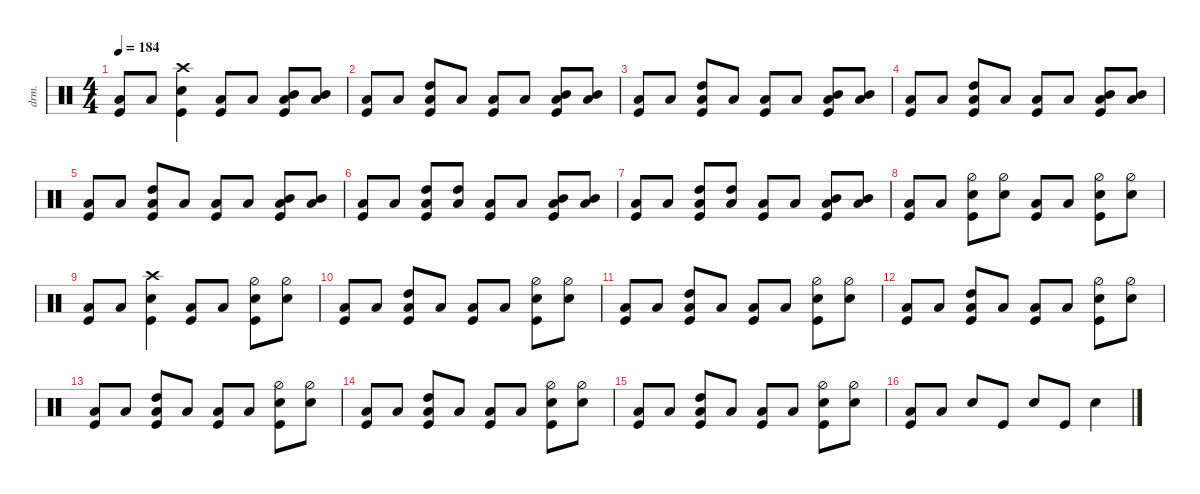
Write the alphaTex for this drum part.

\defaultSystemsLayout 4
\hideDynamics
\bracketExtendMode nobrackets
\otherSystemsTrackNameOrientation horizontal
\track ("Drums" "drm.") {defaultSystemsLayout 4 multiBarRest instrument percussion}
\staff {score}
\articulation defaults
\ts (4 4)
\tempo 184
\clef neutral
\ks c
("Kick (hit)" "Low Tom (hit)").8{dy ff} "Low Tom (hit)".8 ("Snare (hit) 2" "Kick (hit)" "Crash high (hit)").4{dy f} ("Low Tom (hit)" "Kick (hit)").8{dy ff} "Low Tom (hit)".8 ("Low Tom (hit)" "Kick (hit)" "Mid Tom (hit)").8 ("Low Tom (hit)" "Mid Tom (hit)").8 |
("Kick (hit)" "Low Tom (hit)").8 "Low Tom (hit)".8 ("Low Tom (hit)" "Kick (hit)" "High Tom (hit)").8 "Low Tom (hit)".8 ("Low Tom (hit)" "Kick (hit)").8 "Low Tom (hit)".8 ("Low Tom (hit)" "Kick (hit)" "Mid Tom (hit)").8 ("Low Tom (hit)" "Mid Tom (hit)").8 |
("Kick (hit)" "Low Tom (hit)").8 "Low Tom (hit)".8 ("Low Tom (hit)" "Kick (hit)" "High Tom (hit)").8 "Low Tom (hit)".8 ("Low Tom (hit)" "Kick (hit)").8 "Low Tom (hit)".8 ("Low Tom (hit)" "Kick (hit)" "Mid Tom (hit)").8 ("Low Tom (hit)" "Mid Tom (hit)").8 |
("Kick (hit)" "Low Tom (hit)").8 "Low Tom (hit)".8 ("Low Tom (hit)" "Kick (hit)" "High Tom (hit)").8 "Low Tom (hit)".8 ("Low Tom (hit)" "Kick (hit)").8 "Low Tom (hit)".8 ("Low Tom (hit)" "Kick (hit)" "Mid Tom (hit)").8 ("Low Tom (hit)" "Mid Tom (hit)").8 |
("Kick (hit)" "Low Tom (hit)").8 "Low Tom (hit)".8 ("Low Tom (hit)" "Kick (hit)" "High Tom (hit)").8 "Low Tom (hit)".8 ("Low Tom (hit)" "Kick (hit)").8 "Low Tom (hit)".8 ("Low Tom (hit)" "Kick (hit)" "Mid Tom (hit)").8 ("Low Tom (hit)" "Mid Tom (hit)").8 |
("Kick (hit)" "Low Tom (hit)").8 "Low Tom (hit)".8 ("Low Tom (hit)" "Kick (hit)" "High Tom (hit)").8 ("Low Tom (hit)" "High Tom (hit)").8 ("Low Tom (hit)" "Kick (hit)").8 "Low Tom (hit)".8 ("Low Tom (hit)" "Kick (hit)" "Mid Tom (hit)").8 ("Low Tom (hit)" "Mid Tom (hit)").8 |
("Kick (hit)" "Low Tom (hit)").8 "Low Tom (hit)".8 ("Low Tom (hit)" "Kick (hit)" "High Tom (hit)").8 ("Low Tom (hit)" "High Tom (hit)").8 ("Low Tom (hit)" "Kick (hit)").8 "Low Tom (hit)".8 ("Low Tom (hit)" "Kick (hit)" "Mid Tom (hit)").8 ("Low Tom (hit)" "Mid Tom (hit)").8 |
("Kick (hit)" "Low Tom (hit)").8 "Low Tom (hit)".8 ("Snare (hit) 2" "Kick (hit)" "Hi-Hat (half)").8{dy f} ("Snare (hit) 2" "Hi-Hat (half)").8 ("Low Tom (hit)" "Kick (hit)").8{dy ff} "Low Tom (hit)".8 ("Snare (hit) 2" "Kick (hit)" "Hi-Hat (half)").8{dy f} ("Snare (hit) 2" "Hi-Hat (half)").8 |
("Kick (hit)" "Low Tom (hit)").8{dy ff} "Low Tom (hit)".8 ("Snare (hit) 2" "Kick (hit)" "Crash high (hit)").4{dy f} ("Low Tom (hit)" "Kick (hit)").8{dy ff} "Low Tom (hit)".8 ("Snare (hit) 2" "Kick (hit)" "Hi-Hat (half)").8{dy f} ("Snare (hit) 2" "Hi-Hat (half)").8 |
("Kick (hit)" "Low Tom (hit)").8{dy ff} "Low Tom (hit)".8 ("Low Tom (hit)" "Kick (hit)" "High Tom (hit)").8 "Low Tom (hit)".8 ("Low Tom (hit)" "Kick (hit)").8 "Low Tom (hit)".8 ("Snare (hit) 2" "Kick (hit)" "Hi-Hat (half)").8 ("Snare (hit) 2" "Hi-Hat (half)").8 |
("Kick (hit)" "Low Tom (hit)").8 "Low Tom (hit)".8 ("Low Tom (hit)" "Kick (hit)" "High Tom (hit)").8 "Low Tom (hit)".8 ("Low Tom (hit)" "Kick (hit)").8 "Low Tom (hit)".8 ("Snare (hit) 2" "Kick (hit)" "Hi-Hat (half)").8 ("Snare (hit) 2" "Hi-Hat (half)").8 |
("Kick (hit)" "Low Tom (hit)").8 "Low Tom (hit)".8 ("Low Tom (hit)" "Kick (hit)" "High Tom (hit)").8 "Low Tom (hit)".8 ("Low Tom (hit)" "Kick (hit)").8 "Low Tom (hit)".8 ("Snare (hit) 2" "Kick (hit)" "Hi-Hat (half)").8 ("Snare (hit) 2" "Hi-Hat (half)").8 |
("Kick (hit)" "Low Tom (hit)").8 "Low Tom (hit)".8 ("Low Tom (hit)" "Kick (hit)" "High Tom (hit)").8 "Low Tom (hit)".8 ("Low Tom (hit)" "Kick (hit)").8 "Low Tom (hit)".8 ("Snare (hit) 2" "Kick (hit)" "Hi-Hat (half)").8 ("Snare (hit) 2" "Hi-Hat (half)").8 |
("Kick (hit)" "Low Tom (hit)").8 "Low Tom (hit)".8 ("Low Tom (hit)" "Kick (hit)" "High Tom (hit)").8 "Low Tom (hit)".8 ("Low Tom (hit)" "Kick (hit)").8 "Low Tom (hit)".8 ("Snare (hit) 2" "Kick (hit)" "Hi-Hat (half)").8 ("Snare (hit) 2" "Hi-Hat (half)").8 |
("Kick (hit)" "Low Tom (hit)").8 "Low Tom (hit)".8 ("Low Tom (hit)" "Kick (hit)" "High Tom (hit)").8 "Low Tom (hit)".8 ("Low Tom (hit)" "Kick (hit)").8 "Low Tom (hit)".8 ("Snare (hit) 2" "Kick (hit)" "Hi-Hat (half)").8 ("Snare (hit) 2" "Hi-Hat (half)").8 |
("Kick (hit)" "Low Tom (hit)").8 "Low Tom (hit)".8 "Snare (hit) 2".8{dy f} "Kick (hit)".8 "Snare (hit) 2".8 "Kick (hit)".8 "Snare (hit) 2".4
